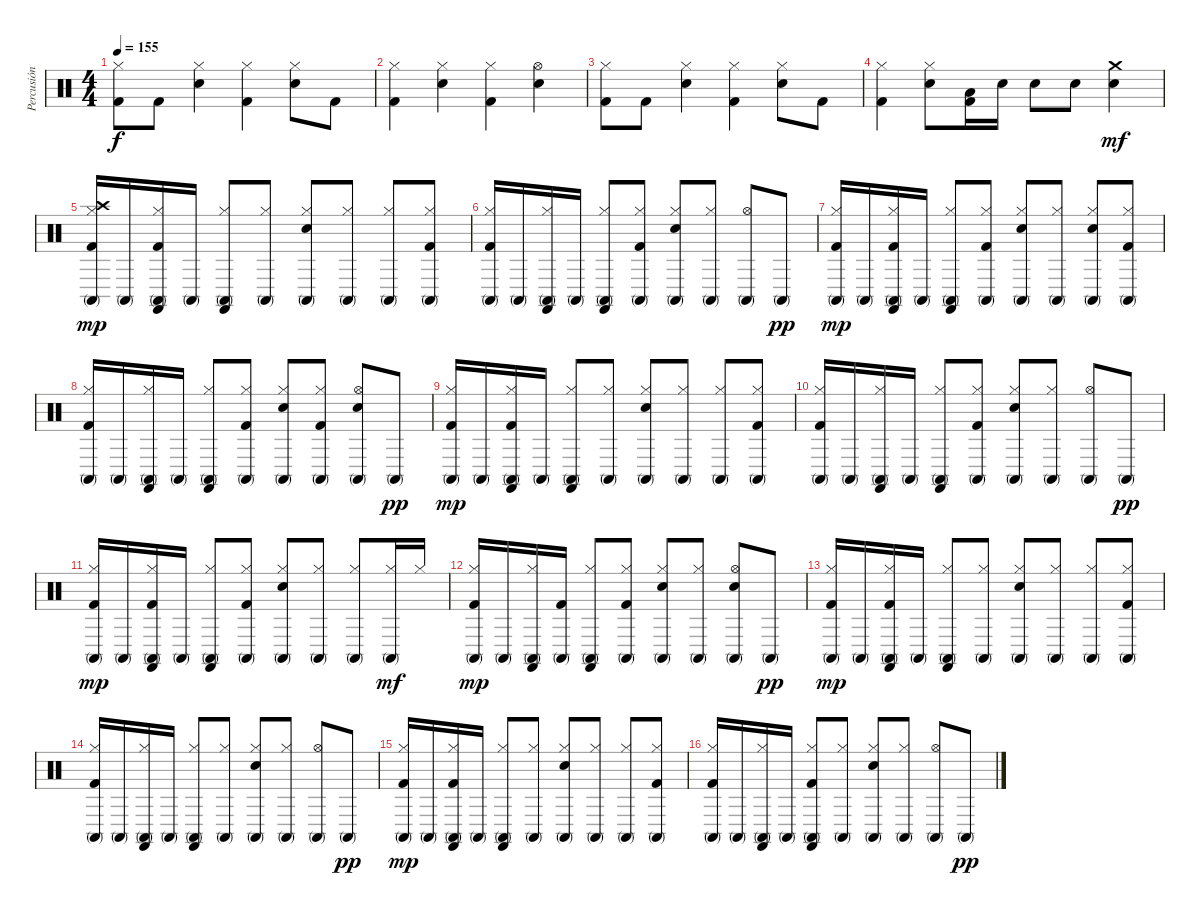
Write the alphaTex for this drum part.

\track ("Percusión" "Percusión") {instrument percussion}
\staff {score}
\articulation defaults
\ts (4 4)
\tempo 155
\clef neutral
\ks c
("Hi-Hat (closed)" "Kick (hit) 2").8{dy f} "Kick (hit) 2".8 ("Hi-Hat (closed)" "Snare (hit) 2").4 ("Hi-Hat (closed)" "Kick (hit) 2").4 ("Hi-Hat (closed)" "Snare (hit) 2").8 "Kick (hit) 2".8 |
("Hi-Hat (closed)" "Kick (hit) 2").4 ("Hi-Hat (closed)" "Snare (hit) 2").4 ("Hi-Hat (closed)" "Kick (hit) 2").4 ("Hi-Hat (open)" "Snare (hit) 2").4 |
("Hi-Hat (closed)" "Kick (hit) 2").8 "Kick (hit) 2".8 ("Hi-Hat (closed)" "Snare (hit) 2").4 ("Hi-Hat (closed)" "Kick (hit) 2").4 ("Hi-Hat (closed)" "Snare (hit) 2").8 "Kick (hit) 2".8 |
("Hi-Hat (closed)" "Kick (hit) 2").4 ("Hi-Hat (closed)" "Snare (hit) 2").8 ("Low Tom (hit)" "Kick (hit) 2").16 "Snare (hit) 2".16 "Snare (hit) 2".8 "Snare (hit) 2".8 ("Crash medium (hit)" "Snare (hit) 2").4{dy mf} |
("Conga high (mute)" "Hi-Hat (closed)" "Kick (hit) 2" "Crash high (hit)").16{dy mp} "Conga high (mute)".16 ("Castanets (hit)" "Conga high (mute)" "Hi-Hat (closed)" "Kick (hit) 2").16 "Conga high (mute)".16 ("Castanets (hit)" "Conga high (mute)" "Hi-Hat (closed)").8 ("Conga high (mute)" "Hi-Hat (closed)").8 ("Conga high (mute)" "Hi-Hat (closed)" "Snare (hit) 2").8 ("Conga high (mute)" "Hi-Hat (closed)").8 ("Conga high (mute)" "Hi-Hat (closed)").8 ("Conga high (mute)" "Hi-Hat (closed)" "Kick (hit) 2").8 |
("Conga high (mute)" "Hi-Hat (closed)" "Kick (hit) 2").16 "Conga high (mute)".16 ("Castanets (hit)" "Conga high (mute)" "Hi-Hat (closed)").16 "Conga high (mute)".16 ("Castanets (hit)" "Conga high (mute)" "Hi-Hat (closed)").8 ("Conga high (mute)" "Hi-Hat (closed)" "Kick (hit) 2").8 ("Conga high (mute)" "Hi-Hat (closed)" "Snare (hit) 2").8 ("Conga high (mute)" "Hi-Hat (closed)").8 ("Conga high (mute)" "Hi-Hat (open)").8 "Conga high (mute)".8{dy pp} |
("Conga high (mute)" "Hi-Hat (closed)" "Kick (hit) 2").16{dy mp} "Conga high (mute)".16 ("Castanets (hit)" "Conga high (mute)" "Hi-Hat (closed)" "Kick (hit) 2").16 "Conga high (mute)".16 ("Castanets (hit)" "Conga high (mute)" "Hi-Hat (closed)").8 ("Conga high (mute)" "Hi-Hat (closed)" "Kick (hit) 2").8 ("Conga high (mute)" "Hi-Hat (closed)" "Snare (hit) 2").8 ("Conga high (mute)" "Hi-Hat (closed)").8 ("Conga high (mute)" "Hi-Hat (closed)" "Snare (hit) 2").8 ("Conga high (mute)" "Hi-Hat (closed)" "Kick (hit) 2").8 |
("Conga high (mute)" "Hi-Hat (closed)" "Kick (hit) 2").16 "Conga high (mute)".16 ("Castanets (hit)" "Conga high (mute)" "Hi-Hat (closed)").16 "Conga high (mute)".16 ("Castanets (hit)" "Conga high (mute)" "Hi-Hat (closed)").8 ("Conga high (mute)" "Hi-Hat (closed)" "Kick (hit) 2").8 ("Conga high (mute)" "Hi-Hat (closed)" "Snare (hit) 2").8 ("Conga high (mute)" "Hi-Hat (closed)" "Kick (hit) 2").8 ("Conga high (mute)" "Hi-Hat (open)" "Snare (hit) 2").8 "Conga high (mute)".8{dy pp} |
("Conga high (mute)" "Hi-Hat (closed)" "Kick (hit) 2").16{dy mp} "Conga high (mute)".16 ("Castanets (hit)" "Conga high (mute)" "Hi-Hat (closed)" "Kick (hit) 2").16 "Conga high (mute)".16 ("Castanets (hit)" "Conga high (mute)" "Hi-Hat (closed)").8 ("Conga high (mute)" "Hi-Hat (closed)").8 ("Conga high (mute)" "Hi-Hat (closed)" "Snare (hit) 2").8 ("Conga high (mute)" "Hi-Hat (closed)").8 ("Conga high (mute)" "Hi-Hat (closed)").8 ("Conga high (mute)" "Hi-Hat (closed)" "Kick (hit) 2").8 |
("Conga high (mute)" "Hi-Hat (closed)" "Kick (hit) 2").16 "Conga high (mute)".16 ("Castanets (hit)" "Conga high (mute)" "Hi-Hat (closed)").16 "Conga high (mute)".16 ("Castanets (hit)" "Conga high (mute)" "Hi-Hat (closed)").8 ("Conga high (mute)" "Hi-Hat (closed)" "Kick (hit) 2").8 ("Conga high (mute)" "Hi-Hat (closed)" "Snare (hit) 2").8 ("Conga high (mute)" "Hi-Hat (closed)").8 ("Conga high (mute)" "Hi-Hat (open)").8 "Conga high (mute)".8{dy pp} |
("Conga high (mute)" "Hi-Hat (closed)" "Kick (hit) 2").16{dy mp} "Conga high (mute)".16 ("Castanets (hit)" "Conga high (mute)" "Hi-Hat (closed)" "Kick (hit) 2").16 "Conga high (mute)".16 ("Castanets (hit)" "Conga high (mute)" "Hi-Hat (closed)").8 ("Conga high (mute)" "Hi-Hat (closed)" "Kick (hit) 2").8 ("Conga high (mute)" "Hi-Hat (closed)" "Snare (hit) 2").8 ("Conga high (mute)" "Hi-Hat (closed)").8 ("Conga high (mute)" "Hi-Hat (closed)").8 ("Conga high (mute)" "Hi-Hat (closed)").16{dy mf} "Hi-Hat (closed)".16 |
("Conga high (mute)" "Hi-Hat (closed)" "Kick (hit) 2").16{dy mp} "Conga high (mute)".16 ("Castanets (hit)" "Conga high (mute)" "Hi-Hat (closed)").16 ("Conga high (mute)" "Kick (hit) 2").16 ("Castanets (hit)" "Conga high (mute)" "Hi-Hat (closed)").8 ("Conga high (mute)" "Hi-Hat (closed)" "Kick (hit) 2").8 ("Conga high (mute)" "Hi-Hat (closed)" "Snare (hit) 2").8 ("Conga high (mute)" "Hi-Hat (closed)").8 ("Conga high (mute)" "Hi-Hat (open)" "Snare (hit) 2").8 "Conga high (mute)".8{dy pp} |
("Conga high (mute)" "Hi-Hat (closed)" "Kick (hit) 2").16{dy mp} "Conga high (mute)".16 ("Castanets (hit)" "Conga high (mute)" "Hi-Hat (closed)" "Kick (hit) 2").16 "Conga high (mute)".16 ("Castanets (hit)" "Conga high (mute)" "Hi-Hat (closed)").8 ("Conga high (mute)" "Hi-Hat (closed)").8 ("Conga high (mute)" "Hi-Hat (closed)" "Snare (hit) 2").8 ("Conga high (mute)" "Hi-Hat (closed)").8 ("Conga high (mute)" "Hi-Hat (closed)").8 ("Conga high (mute)" "Hi-Hat (closed)" "Kick (hit) 2").8 |
("Conga high (mute)" "Hi-Hat (closed)" "Kick (hit) 2").16 "Conga high (mute)".16 ("Castanets (hit)" "Conga high (mute)" "Hi-Hat (closed)").16 "Conga high (mute)".16 ("Castanets (hit)" "Conga high (mute)" "Hi-Hat (closed)").8 ("Conga high (mute)" "Hi-Hat (closed)").8 ("Conga high (mute)" "Hi-Hat (closed)" "Snare (hit) 2").8 ("Conga high (mute)" "Hi-Hat (closed)").8 ("Conga high (mute)" "Hi-Hat (open)").8 "Conga high (mute)".8{dy pp} |
("Conga high (mute)" "Hi-Hat (closed)" "Kick (hit) 2").16{dy mp} "Conga high (mute)".16 ("Castanets (hit)" "Conga high (mute)" "Hi-Hat (closed)" "Kick (hit) 2").16 "Conga high (mute)".16 ("Castanets (hit)" "Conga high (mute)" "Hi-Hat (closed)").8 ("Conga high (mute)" "Hi-Hat (closed)").8 ("Conga high (mute)" "Hi-Hat (closed)" "Snare (hit) 2").8 ("Conga high (mute)" "Hi-Hat (closed)").8 ("Conga high (mute)" "Hi-Hat (closed)").8 ("Conga high (mute)" "Hi-Hat (closed)" "Kick (hit) 2").8 |
("Conga high (mute)" "Hi-Hat (closed)" "Kick (hit) 2").16 "Conga high (mute)".16 ("Castanets (hit)" "Conga high (mute)" "Hi-Hat (closed)").16 "Conga high (mute)".16 ("Castanets (hit)" "Conga high (mute)" "Hi-Hat (closed)" "Kick (hit) 2").8 ("Conga high (mute)" "Hi-Hat (closed)").8 ("Conga high (mute)" "Hi-Hat (closed)" "Snare (hit) 2").8 ("Conga high (mute)" "Hi-Hat (closed)").8 ("Conga high (mute)" "Hi-Hat (open)").8 "Conga high (mute)".8{dy pp}
